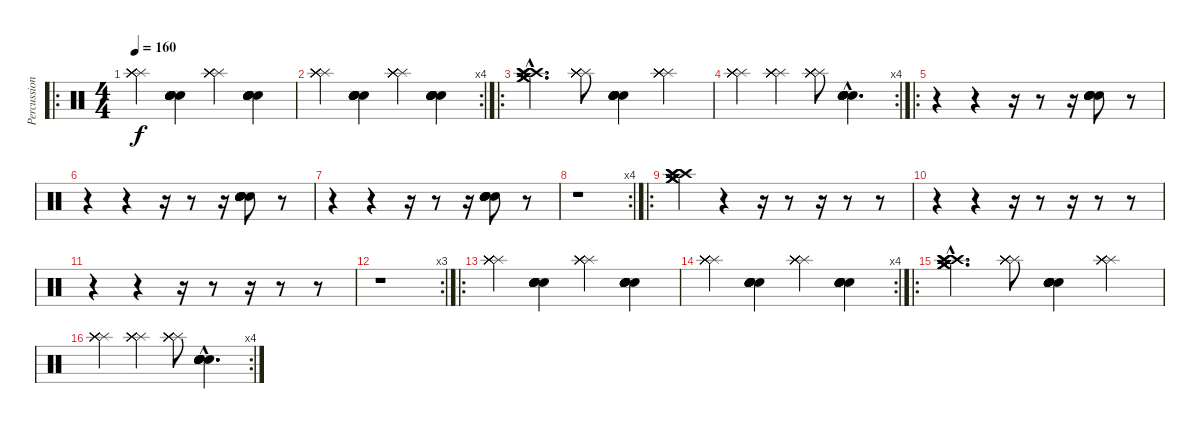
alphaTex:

\track ("Percussion" "Percussion") {instrument percussion}
\staff {score}
\articulation defaults
\ro
\ts (4 4)
\tempo 160
\clef neutral
\ks c
("Splash (hit)" "Splash (hit)" "Splash (hit)" "Splash (hit)" "Splash (hit)" "Splash (hit)").4{dy f} ("Snare (hit) 2" "Snare (hit) 2" "Snare (hit) 2" "Snare (hit) 2" "Snare (hit) 2" "Snare (hit) 2").4 ("Splash (hit)" "Splash (hit)" "Splash (hit)" "Splash (hit)" "Splash (hit)" "Splash (hit)").4 ("Electric Snare (hit)" "Electric Snare (hit)" "Electric Snare (hit)" "Electric Snare (hit)" "Electric Snare (hit)" "Electric Snare (hit)").4 |
\rc 4
("Splash (hit)" "Splash (hit)" "Splash (hit)" "Splash (hit)" "Splash (hit)" "Splash (hit)").4 ("Snare (hit) 2" "Snare (hit) 2" "Snare (hit) 2" "Snare (hit) 2" "Snare (hit) 2" "Snare (hit) 2").4 ("Splash (hit)" "Splash (hit)" "Splash (hit)" "Splash (hit)" "Splash (hit)" "Splash (hit)").4 ("Electric Snare (hit)" "Electric Snare (hit)" "Electric Snare (hit)" "Electric Snare (hit)" "Electric Snare (hit)" "Electric Snare (hit)").4 |
\ro
("Crash high (hit)"{hac} "Crash high (hit)"{hac} "Crash high (hit)"{hac} "Crash medium (hit)"{hac} "Crash medium (hit)"{hac} "Crash medium (hit)"{hac}).4{d} ("Splash (hit)" "Splash (hit)" "Splash (hit)" "Splash (hit)" "Splash (hit)" "Splash (hit)").8 ("Snare (hit) 2" "Snare (hit) 2" "Snare (hit) 2" "Snare (hit) 2" "Snare (hit) 2" "Snare (hit) 2").4 ("Splash (hit)" "Splash (hit)" "Splash (hit)" "Splash (hit)" "Splash (hit)" "Splash (hit)").4 |
\rc 4
("Splash (hit)" "Splash (hit)" "Splash (hit)" "Splash (hit)" "Splash (hit)" "Splash (hit)").4 ("Splash (hit)" "Splash (hit)" "Splash (hit)" "Splash (hit)" "Splash (hit)" "Splash (hit)").4 ("Splash (hit)" "Splash (hit)" "Splash (hit)" "Splash (hit)" "Splash (hit)" "Splash (hit)").8 ("Electric Snare (hit)"{hac} "Electric Snare (hit)"{hac} "Electric Snare (hit)"{hac} "Electric Snare (hit)"{hac} "Electric Snare (hit)"{hac} "Electric Snare (hit)"{hac}).4{d} |
\ro
r.4 r.4 r.16 r.8 r.16 ("Electric Snare (hit)" "Electric Snare (hit)" "Electric Snare (hit)" "Electric Snare (hit)" "Electric Snare (hit)" "Electric Snare (hit)").8 r.8 |
r.4 r.4 r.16 r.8 r.16 ("Electric Snare (hit)" "Electric Snare (hit)" "Electric Snare (hit)" "Electric Snare (hit)" "Electric Snare (hit)" "Electric Snare (hit)").8 r.8 |
r.4 r.4 r.16 r.8 r.16 ("Electric Snare (hit)" "Electric Snare (hit)" "Electric Snare (hit)" "Electric Snare (hit)" "Electric Snare (hit)" "Electric Snare (hit)").8 r.8 |
\rc 4
r.1 |
\ro
("Crash high (hit)" "Crash high (hit)" "Crash high (hit)" "Crash medium (hit)" "Crash medium (hit)" "Crash medium (hit)").4 r.4 r.16 r.8 r.16 r.8 r.8 |
r.4 r.4 r.16 r.8 r.16 r.8 r.8 |
r.4 r.4 r.16 r.8 r.16 r.8 r.8 |
\rc 3
r.1 |
\ro
("Splash (hit)" "Splash (hit)" "Splash (hit)" "Splash (hit)" "Splash (hit)" "Splash (hit)").4 ("Snare (hit) 2" "Snare (hit) 2" "Snare (hit) 2" "Snare (hit) 2" "Snare (hit) 2" "Snare (hit) 2").4 ("Splash (hit)" "Splash (hit)" "Splash (hit)" "Splash (hit)" "Splash (hit)" "Splash (hit)").4 ("Electric Snare (hit)" "Electric Snare (hit)" "Electric Snare (hit)" "Electric Snare (hit)" "Electric Snare (hit)" "Electric Snare (hit)").4 |
\rc 4
("Splash (hit)" "Splash (hit)" "Splash (hit)" "Splash (hit)" "Splash (hit)" "Splash (hit)").4 ("Snare (hit) 2" "Snare (hit) 2" "Snare (hit) 2" "Snare (hit) 2" "Snare (hit) 2" "Snare (hit) 2").4 ("Splash (hit)" "Splash (hit)" "Splash (hit)" "Splash (hit)" "Splash (hit)" "Splash (hit)").4 ("Electric Snare (hit)" "Electric Snare (hit)" "Electric Snare (hit)" "Electric Snare (hit)" "Electric Snare (hit)" "Electric Snare (hit)").4 |
\ro
("Crash high (hit)"{hac} "Crash high (hit)"{hac} "Crash high (hit)"{hac} "Crash medium (hit)"{hac} "Crash medium (hit)"{hac} "Crash medium (hit)"{hac}).4{d} ("Splash (hit)" "Splash (hit)" "Splash (hit)" "Splash (hit)" "Splash (hit)" "Splash (hit)").8 ("Snare (hit) 2" "Snare (hit) 2" "Snare (hit) 2" "Snare (hit) 2" "Snare (hit) 2" "Snare (hit) 2").4 ("Splash (hit)" "Splash (hit)" "Splash (hit)" "Splash (hit)" "Splash (hit)" "Splash (hit)").4 |
\rc 4
("Splash (hit)" "Splash (hit)" "Splash (hit)" "Splash (hit)" "Splash (hit)" "Splash (hit)").4 ("Splash (hit)" "Splash (hit)" "Splash (hit)" "Splash (hit)" "Splash (hit)" "Splash (hit)").4 ("Splash (hit)" "Splash (hit)" "Splash (hit)" "Splash (hit)" "Splash (hit)" "Splash (hit)").8 ("Electric Snare (hit)"{hac} "Electric Snare (hit)"{hac} "Electric Snare (hit)"{hac} "Electric Snare (hit)"{hac} "Electric Snare (hit)"{hac} "Electric Snare (hit)"{hac}).4{d}
